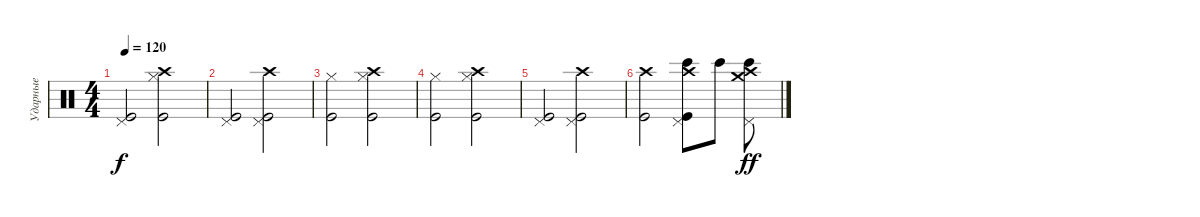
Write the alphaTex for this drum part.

\track ("Ударные" "Ударные") {instrument percussion}
\staff {score}
\articulation defaults
\ts (4 4)
\tempo 120
\clef neutral
\ks c
("Pedal Hi-Hat (hit)" "Kick (hit)").2{dy f} ("Crash high (hit)" "Hi-Hat (closed)" "Kick (hit)").2 |
("Pedal Hi-Hat (hit)" "Kick (hit)").2 ("Crash high (hit)" "Pedal Hi-Hat (hit)" "Kick (hit)").2 |
("Hi-Hat (closed)" "Kick (hit)").2 ("Crash high (hit)" "Hi-Hat (closed)" "Kick (hit)").2 |
("Hi-Hat (closed)" "Kick (hit)").2 ("Crash high (hit)" "Hi-Hat (closed)" "Kick (hit)").2 |
("Pedal Hi-Hat (hit)" "Kick (hit)").2 ("Crash high (hit)" "Pedal Hi-Hat (hit)" "Kick (hit)").2 |
("Crash high (hit)" "Kick (hit)").2 ("Crash high (hit)" "Bongo High (hit)" "Pedal Hi-Hat (hit)" "Kick (hit)").8 "Bongo High (hit)".8 ("Crash medium (hit)" "Crash high (hit)" "Bongo High (hit)" "Pedal Hi-Hat (hit)").8{dy ff}
